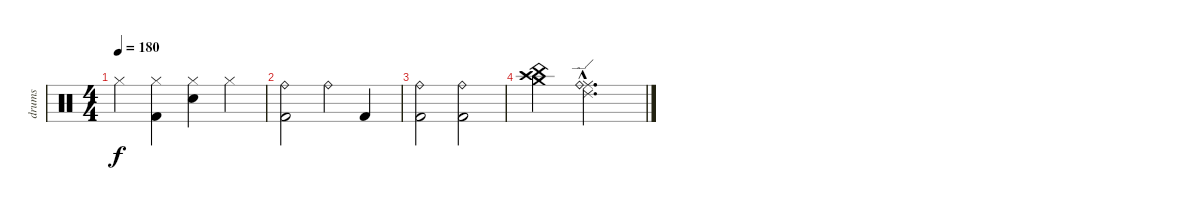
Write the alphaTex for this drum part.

\track ("drums" "drums") {instrument percussion}
\staff {score}
\articulation defaults
\ts (4 4)
\tempo 180
\clef neutral
\ks c "Hi-Hat (closed)".4{dy f}
("Hi-Hat (closed)" "Kick (hit) 2").4 ("Hi-Hat (closed)" "Snare (hit) 2").4 "Hi-Hat (closed)".4 |
("Ride (bell)" "Kick (hit) 2").2 "Ride (bell)".4 "Kick (hit) 2".4 |
("Ride (bell)" "Kick (hit) 2").2 ("Ride (bell)" "Kick (hit) 2").2 |
("China (hit)" "Crash high (hit)" "Crash medium (hit)").4 ("Ride (middle)"{hac} "Ride (bell)"{hac} "Ride (edge) 2"{hac}).2{d}
